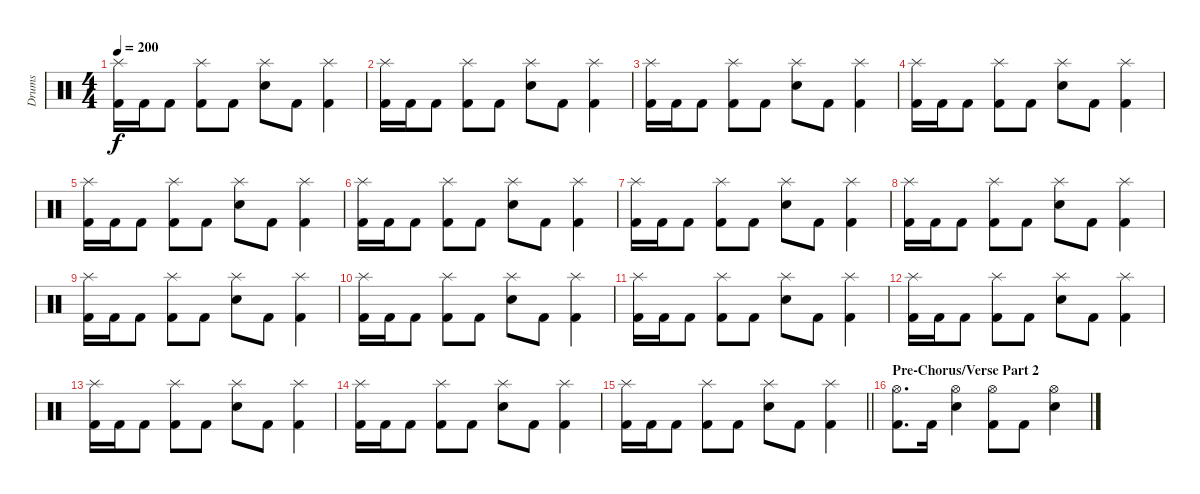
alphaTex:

\track ("Drums" "Drums") {instrument percussion}
\staff {score}
\articulation defaults
\ts (4 4)
\tempo 200
\clef neutral
\ks c
("Splash (hit)" "Kick (hit) 2").16{dy f} "Kick (hit) 2".16 "Kick (hit) 2".8 ("Splash (hit)" "Kick (hit) 2").8 "Kick (hit) 2".8 ("Splash (hit)" "Electric Snare (hit)").8 "Kick (hit) 2".8 ("Splash (hit)" "Kick (hit) 2").4 |
("Splash (hit)" "Kick (hit) 2").16 "Kick (hit) 2".16 "Kick (hit) 2".8 ("Splash (hit)" "Kick (hit) 2").8 "Kick (hit) 2".8 ("Splash (hit)" "Electric Snare (hit)").8 "Kick (hit) 2".8 ("Splash (hit)" "Kick (hit) 2").4 |
("Splash (hit)" "Kick (hit) 2").16 "Kick (hit) 2".16 "Kick (hit) 2".8 ("Splash (hit)" "Kick (hit) 2").8 "Kick (hit) 2".8 ("Splash (hit)" "Electric Snare (hit)").8 "Kick (hit) 2".8 ("Splash (hit)" "Kick (hit) 2").4 |
("Splash (hit)" "Kick (hit) 2").16 "Kick (hit) 2".16 "Kick (hit) 2".8 ("Splash (hit)" "Kick (hit) 2").8 "Kick (hit) 2".8 ("Splash (hit)" "Electric Snare (hit)").8 "Kick (hit) 2".8 ("Splash (hit)" "Kick (hit) 2").4 |
("Splash (hit)" "Kick (hit) 2").16 "Kick (hit) 2".16 "Kick (hit) 2".8 ("Splash (hit)" "Kick (hit) 2").8 "Kick (hit) 2".8 ("Splash (hit)" "Electric Snare (hit)").8 "Kick (hit) 2".8 ("Splash (hit)" "Kick (hit) 2").4 |
("Splash (hit)" "Kick (hit) 2").16 "Kick (hit) 2".16 "Kick (hit) 2".8 ("Splash (hit)" "Kick (hit) 2").8 "Kick (hit) 2".8 ("Splash (hit)" "Electric Snare (hit)").8 "Kick (hit) 2".8 ("Splash (hit)" "Kick (hit) 2").4 |
("Splash (hit)" "Kick (hit) 2").16 "Kick (hit) 2".16 "Kick (hit) 2".8 ("Splash (hit)" "Kick (hit) 2").8 "Kick (hit) 2".8 ("Splash (hit)" "Electric Snare (hit)").8 "Kick (hit) 2".8 ("Splash (hit)" "Kick (hit) 2").4 |
("Splash (hit)" "Kick (hit) 2").16 "Kick (hit) 2".16 "Kick (hit) 2".8 ("Splash (hit)" "Kick (hit) 2").8 "Kick (hit) 2".8 ("Splash (hit)" "Electric Snare (hit)").8 "Kick (hit) 2".8 ("Splash (hit)" "Kick (hit) 2").4 |
("Splash (hit)" "Kick (hit) 2").16 "Kick (hit) 2".16 "Kick (hit) 2".8 ("Splash (hit)" "Kick (hit) 2").8 "Kick (hit) 2".8 ("Splash (hit)" "Electric Snare (hit)").8 "Kick (hit) 2".8 ("Splash (hit)" "Kick (hit) 2").4 |
("Splash (hit)" "Kick (hit) 2").16 "Kick (hit) 2".16 "Kick (hit) 2".8 ("Splash (hit)" "Kick (hit) 2").8 "Kick (hit) 2".8 ("Splash (hit)" "Electric Snare (hit)").8 "Kick (hit) 2".8 ("Splash (hit)" "Kick (hit) 2").4 |
("Splash (hit)" "Kick (hit) 2").16 "Kick (hit) 2".16 "Kick (hit) 2".8 ("Splash (hit)" "Kick (hit) 2").8 "Kick (hit) 2".8 ("Splash (hit)" "Electric Snare (hit)").8 "Kick (hit) 2".8 ("Splash (hit)" "Kick (hit) 2").4 |
("Splash (hit)" "Kick (hit) 2").16 "Kick (hit) 2".16 "Kick (hit) 2".8 ("Splash (hit)" "Kick (hit) 2").8 "Kick (hit) 2".8 ("Splash (hit)" "Electric Snare (hit)").8 "Kick (hit) 2".8 ("Splash (hit)" "Kick (hit) 2").4 |
("Splash (hit)" "Kick (hit) 2").16 "Kick (hit) 2".16 "Kick (hit) 2".8 ("Splash (hit)" "Kick (hit) 2").8 "Kick (hit) 2".8 ("Splash (hit)" "Electric Snare (hit)").8 "Kick (hit) 2".8 ("Splash (hit)" "Kick (hit) 2").4 |
("Splash (hit)" "Kick (hit) 2").16 "Kick (hit) 2".16 "Kick (hit) 2".8 ("Splash (hit)" "Kick (hit) 2").8 "Kick (hit) 2".8 ("Splash (hit)" "Electric Snare (hit)").8 "Kick (hit) 2".8 ("Splash (hit)" "Kick (hit) 2").4 |
\barLineRight lightlight
("Splash (hit)" "Kick (hit) 2").16 "Kick (hit) 2".16 "Kick (hit) 2".8 ("Splash (hit)" "Kick (hit) 2").8 "Kick (hit) 2".8 ("Splash (hit)" "Electric Snare (hit)").8 "Kick (hit) 2".8 ("Splash (hit)" "Kick (hit) 2").4 |
\section ("" "Pre-Chorus/Verse Part 2")
("Hi-Hat (open)" "Kick (hit) 2").8{d} "Kick (hit) 2".16 ("Hi-Hat (open)" "Electric Snare (hit)").4 ("Hi-Hat (open)" "Kick (hit) 2").8 "Kick (hit) 2".8 ("Hi-Hat (open)" "Electric Snare (hit)").4
